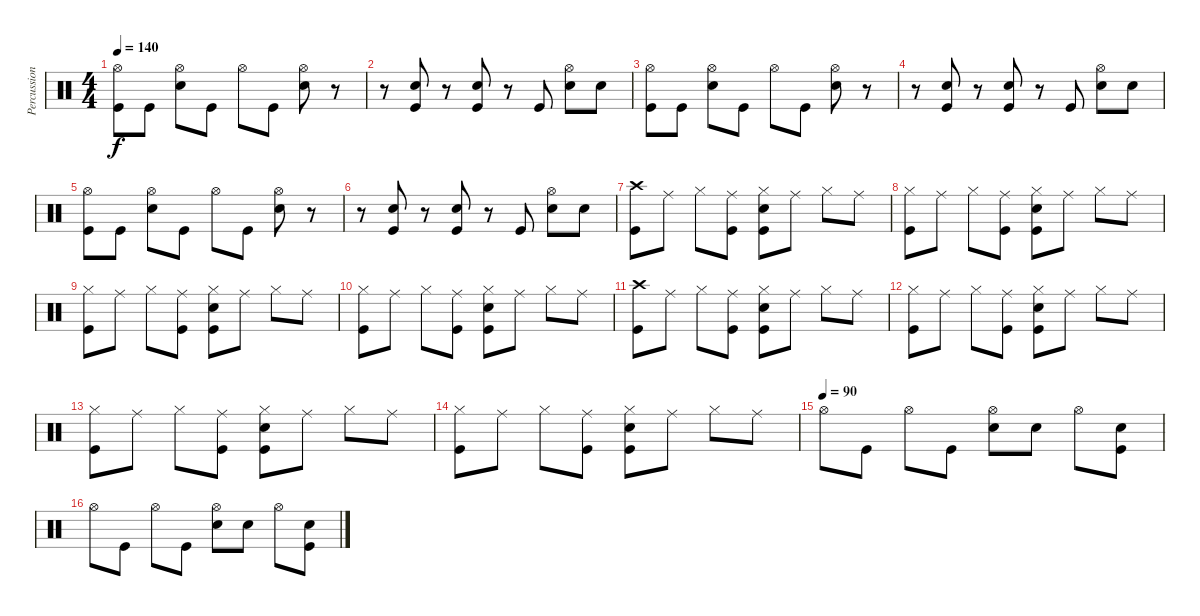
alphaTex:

\track ("Percussion" "Percussion") {instrument percussion}
\staff {score}
\articulation defaults
\ts (4 4)
\tempo 140
\clef neutral
\ks c
("Hi-Hat (open)" "Kick (hit)").8{dy f} "Kick (hit)".8 ("Hi-Hat (open)" "Snare (hit) 2").8 "Kick (hit)".8 "Hi-Hat (open)".8 "Kick (hit)".8 ("Hi-Hat (open)" "Snare (hit) 2").8 r.8 |
r.8 ("Snare (hit) 2" "Kick (hit)").8 r.8 ("Snare (hit) 2" "Kick (hit)").8 r.8 "Kick (hit)".8 ("Hi-Hat (open)" "Snare (hit) 2").8 "Snare (hit) 2".8 |
("Hi-Hat (open)" "Kick (hit)").8 "Kick (hit)".8 ("Hi-Hat (open)" "Snare (hit) 2").8 "Kick (hit)".8 "Hi-Hat (open)".8 "Kick (hit)".8 ("Hi-Hat (open)" "Snare (hit) 2").8 r.8 |
r.8 ("Snare (hit) 2" "Kick (hit)").8 r.8 ("Snare (hit) 2" "Kick (hit)").8 r.8 "Kick (hit)".8 ("Hi-Hat (open)" "Snare (hit) 2").8 "Snare (hit) 2".8 |
("Hi-Hat (open)" "Kick (hit)").8 "Kick (hit)".8 ("Hi-Hat (open)" "Snare (hit) 2").8 "Kick (hit)".8 "Hi-Hat (open)".8 "Kick (hit)".8 ("Hi-Hat (open)" "Snare (hit) 2").8 r.8 |
r.8 ("Snare (hit) 2" "Kick (hit)").8 r.8 ("Snare (hit) 2" "Kick (hit)").8 r.8 "Kick (hit)".8 ("Hi-Hat (open)" "Snare (hit) 2").8 "Snare (hit) 2".8 |
("Crash high (hit)" "Kick (hit)").8 "Ride (middle)".8 "Hi-Hat (closed)".8 ("Ride (middle)" "Kick (hit)").8 ("Hi-Hat (closed)" "Snare (hit) 2" "Kick (hit)").8 "Ride (middle)".8 "Hi-Hat (closed)".8 "Ride (middle)".8 |
("Hi-Hat (closed)" "Kick (hit)").8 "Ride (middle)".8 "Hi-Hat (closed)".8 ("Ride (middle)" "Kick (hit)").8 ("Hi-Hat (closed)" "Snare (hit) 2" "Kick (hit)").8 "Ride (middle)".8 "Hi-Hat (closed)".8 "Ride (middle)".8 |
("Hi-Hat (closed)" "Kick (hit)").8 "Ride (middle)".8 "Hi-Hat (closed)".8 ("Ride (middle)" "Kick (hit)").8 ("Hi-Hat (closed)" "Snare (hit) 2" "Kick (hit)").8 "Ride (middle)".8 "Hi-Hat (closed)".8 "Ride (middle)".8 |
("Hi-Hat (closed)" "Kick (hit)").8 "Ride (middle)".8 "Hi-Hat (closed)".8 ("Ride (middle)" "Kick (hit)").8 ("Hi-Hat (closed)" "Snare (hit) 2" "Kick (hit)").8 "Ride (middle)".8 "Hi-Hat (closed)".8 "Ride (middle)".8 |
("Crash high (hit)" "Kick (hit)").8 "Ride (middle)".8 "Hi-Hat (closed)".8 ("Ride (middle)" "Kick (hit)").8 ("Hi-Hat (closed)" "Snare (hit) 2" "Kick (hit)").8 "Ride (middle)".8 "Hi-Hat (closed)".8 "Ride (middle)".8 |
("Hi-Hat (closed)" "Kick (hit)").8 "Ride (middle)".8 "Hi-Hat (closed)".8 ("Ride (middle)" "Kick (hit)").8 ("Hi-Hat (closed)" "Snare (hit) 2" "Kick (hit)").8 "Ride (middle)".8 "Hi-Hat (closed)".8 "Ride (middle)".8 |
("Hi-Hat (closed)" "Kick (hit)").8 "Ride (middle)".8 "Hi-Hat (closed)".8 ("Ride (middle)" "Kick (hit)").8 ("Hi-Hat (closed)" "Snare (hit) 2" "Kick (hit)").8 "Ride (middle)".8 "Hi-Hat (closed)".8 "Ride (middle)".8 |
("Hi-Hat (closed)" "Kick (hit)").8 "Ride (middle)".8 "Hi-Hat (closed)".8 ("Ride (middle)" "Kick (hit)").8 ("Hi-Hat (closed)" "Snare (hit) 2" "Kick (hit)").8 "Ride (middle)".8 "Hi-Hat (closed)".8 "Ride (middle)".8 |
\tempo (90)
"Hi-Hat (open)".8 "Kick (hit)".8 "Hi-Hat (open)".8 "Kick (hit)".8 ("Hi-Hat (open)" "Snare (hit) 2").8 "Snare (hit) 2".8 "Hi-Hat (open)".8 ("Kick (hit)" "Snare (hit) 2").8 |
"Hi-Hat (open)".8 "Kick (hit)".8 "Hi-Hat (open)".8 "Kick (hit)".8 ("Hi-Hat (open)" "Snare (hit) 2").8 "Snare (hit) 2".8 "Hi-Hat (open)".8 ("Kick (hit)" "Snare (hit) 2").8
